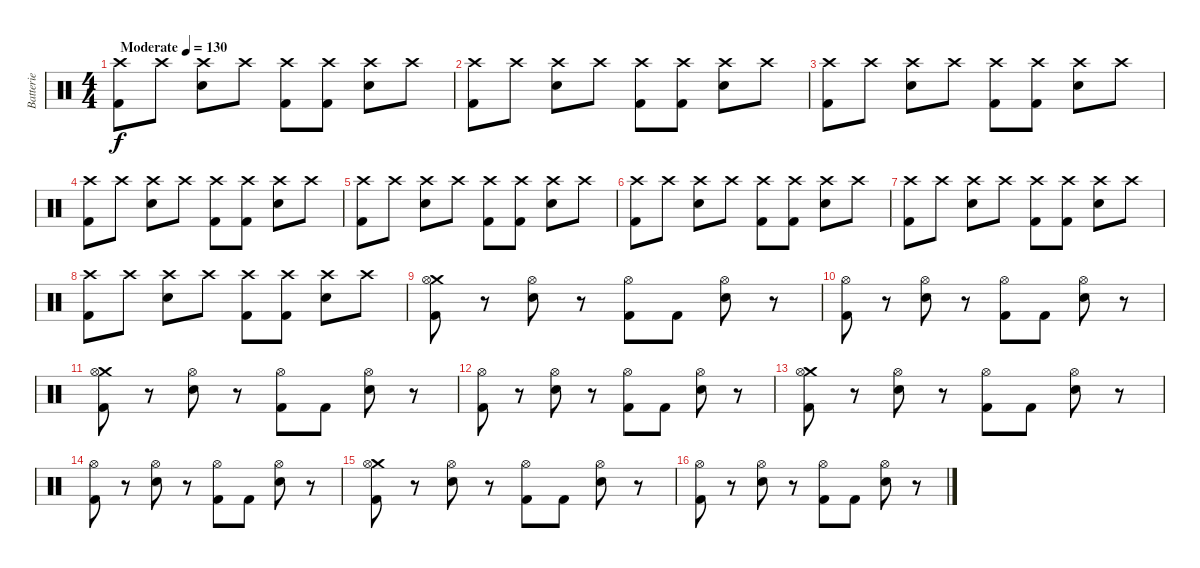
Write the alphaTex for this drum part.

\track ("Batterie" "Batterie") {instrument percussion}
\staff {score}
\articulation defaults
\ts (4 4)
\tempo (130 "Moderate")
\clef neutral
\ks c
("Crash high (hit)" "Kick (hit) 2").8{dy f} "Crash high (hit)".8 ("Crash high (hit)" "Electric Snare (hit)").8 "Crash high (hit)".8 ("Crash high (hit)" "Kick (hit) 2").8 ("Crash high (hit)" "Kick (hit) 2").8 ("Crash high (hit)" "Electric Snare (hit)").8 "Crash high (hit)".8 |
("Crash high (hit)" "Kick (hit) 2").8 "Crash high (hit)".8 ("Crash high (hit)" "Electric Snare (hit)").8 "Crash high (hit)".8 ("Crash high (hit)" "Kick (hit) 2").8 ("Crash high (hit)" "Kick (hit) 2").8 ("Crash high (hit)" "Electric Snare (hit)").8 "Crash high (hit)".8 |
("Crash high (hit)" "Kick (hit) 2").8 "Crash high (hit)".8 ("Crash high (hit)" "Electric Snare (hit)").8 "Crash high (hit)".8 ("Crash high (hit)" "Kick (hit) 2").8 ("Crash high (hit)" "Kick (hit) 2").8 ("Crash high (hit)" "Electric Snare (hit)").8 "Crash high (hit)".8 |
("Crash high (hit)" "Kick (hit) 2").8 "Crash high (hit)".8 ("Crash high (hit)" "Electric Snare (hit)").8 "Crash high (hit)".8 ("Crash high (hit)" "Kick (hit) 2").8 ("Crash high (hit)" "Kick (hit) 2").8 ("Crash high (hit)" "Electric Snare (hit)").8 "Crash high (hit)".8 |
("Crash high (hit)" "Kick (hit) 2").8 "Crash high (hit)".8 ("Crash high (hit)" "Electric Snare (hit)").8 "Crash high (hit)".8 ("Crash high (hit)" "Kick (hit) 2").8 ("Crash high (hit)" "Kick (hit) 2").8 ("Crash high (hit)" "Electric Snare (hit)").8 "Crash high (hit)".8 |
("Crash high (hit)" "Kick (hit) 2").8 "Crash high (hit)".8 ("Crash high (hit)" "Electric Snare (hit)").8 "Crash high (hit)".8 ("Crash high (hit)" "Kick (hit) 2").8 ("Crash high (hit)" "Kick (hit) 2").8 ("Crash high (hit)" "Electric Snare (hit)").8 "Crash high (hit)".8 |
("Crash high (hit)" "Kick (hit) 2").8 "Crash high (hit)".8 ("Crash high (hit)" "Electric Snare (hit)").8 "Crash high (hit)".8 ("Crash high (hit)" "Kick (hit) 2").8 ("Crash high (hit)" "Kick (hit) 2").8 ("Crash high (hit)" "Electric Snare (hit)").8 "Crash high (hit)".8 |
("Crash high (hit)" "Kick (hit) 2").8 "Crash high (hit)".8 ("Crash high (hit)" "Electric Snare (hit)").8 "Crash high (hit)".8 ("Crash high (hit)" "Kick (hit) 2").8 ("Crash high (hit)" "Kick (hit) 2").8 ("Crash high (hit)" "Electric Snare (hit)").8 "Crash high (hit)".8 |
("Crash medium (hit)" "Hi-Hat (open)" "Kick (hit) 2").8 r.8 ("Hi-Hat (open)" "Electric Snare (hit)").8 r.8 ("Hi-Hat (open)" "Kick (hit) 2").8 "Kick (hit) 2".8 ("Hi-Hat (open)" "Electric Snare (hit)").8 r.8 |
("Hi-Hat (open)" "Kick (hit) 2").8 r.8 ("Hi-Hat (open)" "Electric Snare (hit)").8 r.8 ("Hi-Hat (open)" "Kick (hit) 2").8 "Kick (hit) 2".8 ("Hi-Hat (open)" "Electric Snare (hit)").8 r.8 |
("Crash medium (hit)" "Hi-Hat (open)" "Kick (hit) 2").8 r.8 ("Hi-Hat (open)" "Electric Snare (hit)").8 r.8 ("Hi-Hat (open)" "Kick (hit) 2").8 "Kick (hit) 2".8 ("Hi-Hat (open)" "Electric Snare (hit)").8 r.8 |
("Hi-Hat (open)" "Kick (hit) 2").8 r.8 ("Hi-Hat (open)" "Electric Snare (hit)").8 r.8 ("Hi-Hat (open)" "Kick (hit) 2").8 "Kick (hit) 2".8 ("Hi-Hat (open)" "Electric Snare (hit)").8 r.8 |
("Crash medium (hit)" "Hi-Hat (open)" "Kick (hit) 2").8 r.8 ("Hi-Hat (open)" "Electric Snare (hit)").8 r.8 ("Hi-Hat (open)" "Kick (hit) 2").8 "Kick (hit) 2".8 ("Hi-Hat (open)" "Electric Snare (hit)").8 r.8 |
("Hi-Hat (open)" "Kick (hit) 2").8 r.8 ("Hi-Hat (open)" "Electric Snare (hit)").8 r.8 ("Hi-Hat (open)" "Kick (hit) 2").8 "Kick (hit) 2".8 ("Hi-Hat (open)" "Electric Snare (hit)").8 r.8 |
("Crash medium (hit)" "Hi-Hat (open)" "Kick (hit) 2").8 r.8 ("Hi-Hat (open)" "Electric Snare (hit)").8 r.8 ("Hi-Hat (open)" "Kick (hit) 2").8 "Kick (hit) 2".8 ("Hi-Hat (open)" "Electric Snare (hit)").8 r.8 |
("Hi-Hat (open)" "Kick (hit) 2").8 r.8 ("Hi-Hat (open)" "Electric Snare (hit)").8 r.8 ("Hi-Hat (open)" "Kick (hit) 2").8 "Kick (hit) 2".8 ("Hi-Hat (open)" "Electric Snare (hit)").8 r.8
